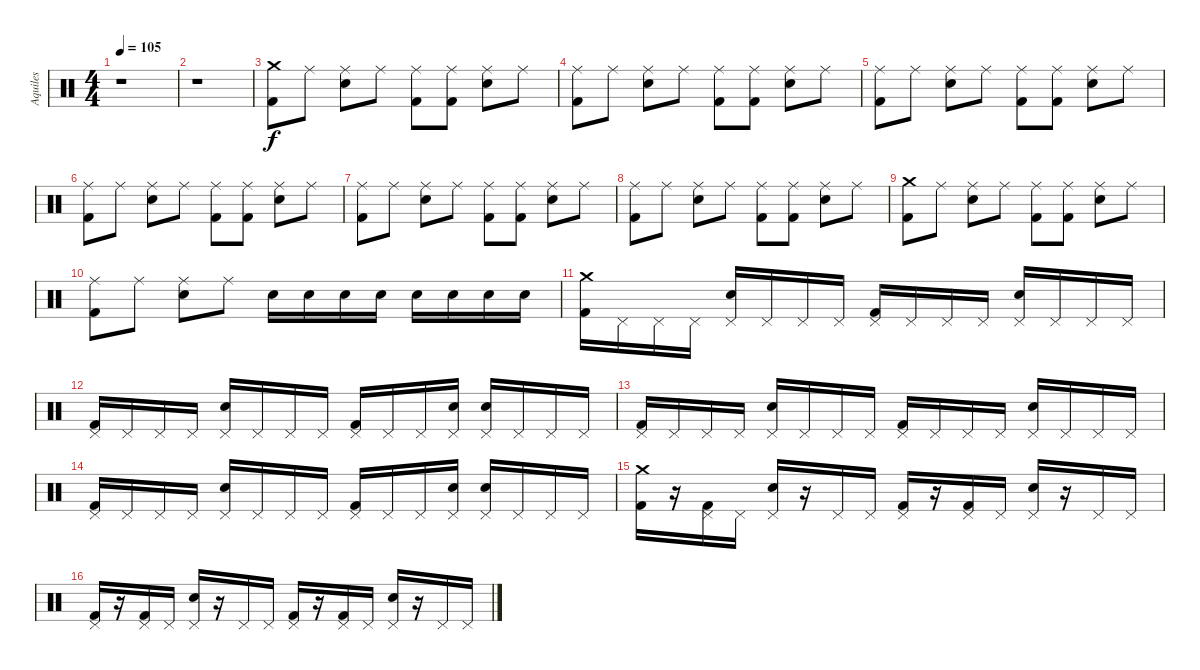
\track ("Aquiles" "Aquiles") {instrument percussion}
\staff {score}
\articulation defaults
\ts (4 4)
\tempo 105
\clef neutral
\ks c
r.1{dy f} |
r.1 |
("Kick (hit) 2" "Crash medium (hit)").8 "Ride (middle)".8 ("Ride (middle)" "Electric Snare (hit)").8 "Ride (middle)".8 ("Kick (hit) 2" "Ride (middle)").8 ("Kick (hit) 2" "Ride (middle)").8 ("Ride (middle)" "Electric Snare (hit)").8 "Ride (middle)".8 |
("Kick (hit) 2" "Ride (middle)").8 "Ride (middle)".8 ("Ride (middle)" "Electric Snare (hit)").8 "Ride (middle)".8 ("Kick (hit) 2" "Ride (middle)").8 ("Kick (hit) 2" "Ride (middle)").8 ("Ride (middle)" "Electric Snare (hit)").8 "Ride (middle)".8 |
("Kick (hit) 2" "Ride (middle)").8 "Ride (middle)".8 ("Ride (middle)" "Electric Snare (hit)").8 "Ride (middle)".8 ("Kick (hit) 2" "Ride (middle)").8 ("Kick (hit) 2" "Ride (middle)").8 ("Ride (middle)" "Electric Snare (hit)").8 "Ride (middle)".8 |
("Kick (hit) 2" "Ride (middle)").8 "Ride (middle)".8 ("Ride (middle)" "Electric Snare (hit)").8 "Ride (middle)".8 ("Kick (hit) 2" "Ride (middle)").8 ("Kick (hit) 2" "Ride (middle)").8 ("Ride (middle)" "Electric Snare (hit)").8 "Ride (middle)".8 |
("Kick (hit) 2" "Ride (middle)").8 "Ride (middle)".8 ("Ride (middle)" "Electric Snare (hit)").8 "Ride (middle)".8 ("Kick (hit) 2" "Ride (middle)").8 ("Kick (hit) 2" "Ride (middle)").8 ("Ride (middle)" "Electric Snare (hit)").8 "Ride (middle)".8 |
("Kick (hit) 2" "Ride (middle)").8 "Ride (middle)".8 ("Ride (middle)" "Electric Snare (hit)").8 "Ride (middle)".8 ("Kick (hit) 2" "Ride (middle)").8 ("Kick (hit) 2" "Ride (middle)").8 ("Ride (middle)" "Electric Snare (hit)").8 "Ride (middle)".8 |
("Kick (hit) 2" "Crash medium (hit)").8 "Ride (middle)".8 ("Ride (middle)" "Electric Snare (hit)").8 "Ride (middle)".8 ("Kick (hit) 2" "Ride (middle)").8 ("Kick (hit) 2" "Ride (middle)").8 ("Ride (middle)" "Electric Snare (hit)").8 "Ride (middle)".8 |
("Kick (hit) 2" "Ride (middle)").8 "Ride (middle)".8 ("Ride (middle)" "Electric Snare (hit)").8 "Ride (middle)".8 "Electric Snare (hit)".16 "Electric Snare (hit)".16 "Electric Snare (hit)".16 "Electric Snare (hit)".16 "Electric Snare (hit)".16 "Electric Snare (hit)".16 "Electric Snare (hit)".16 "Electric Snare (hit)".16 |
("Kick (hit) 2" "Crash medium (hit)").16 "Pedal Hi-Hat (hit)".16 "Pedal Hi-Hat (hit)".16 "Pedal Hi-Hat (hit)".16 ("Pedal Hi-Hat (hit)" "Electric Snare (hit)").16 "Pedal Hi-Hat (hit)".16 "Pedal Hi-Hat (hit)".16 "Pedal Hi-Hat (hit)".16 ("Kick (hit) 2" "Pedal Hi-Hat (hit)").16 "Pedal Hi-Hat (hit)".16 "Pedal Hi-Hat (hit)".16 "Pedal Hi-Hat (hit)".16 ("Pedal Hi-Hat (hit)" "Electric Snare (hit)").16 "Pedal Hi-Hat (hit)".16 "Pedal Hi-Hat (hit)".16 "Pedal Hi-Hat (hit)".16 |
("Kick (hit) 2" "Pedal Hi-Hat (hit)").16 "Pedal Hi-Hat (hit)".16 "Pedal Hi-Hat (hit)".16 "Pedal Hi-Hat (hit)".16 ("Pedal Hi-Hat (hit)" "Electric Snare (hit)").16 "Pedal Hi-Hat (hit)".16 "Pedal Hi-Hat (hit)".16 "Pedal Hi-Hat (hit)".16 ("Kick (hit) 2" "Pedal Hi-Hat (hit)").16 "Pedal Hi-Hat (hit)".16 "Pedal Hi-Hat (hit)".16 ("Pedal Hi-Hat (hit)" "Electric Snare (hit)").16 ("Pedal Hi-Hat (hit)" "Electric Snare (hit)").16 "Pedal Hi-Hat (hit)".16 "Pedal Hi-Hat (hit)".16 "Pedal Hi-Hat (hit)".16 |
("Kick (hit) 2" "Pedal Hi-Hat (hit)").16 "Pedal Hi-Hat (hit)".16 "Pedal Hi-Hat (hit)".16 "Pedal Hi-Hat (hit)".16 ("Pedal Hi-Hat (hit)" "Electric Snare (hit)").16 "Pedal Hi-Hat (hit)".16 "Pedal Hi-Hat (hit)".16 "Pedal Hi-Hat (hit)".16 ("Kick (hit) 2" "Pedal Hi-Hat (hit)").16 "Pedal Hi-Hat (hit)".16 "Pedal Hi-Hat (hit)".16 "Pedal Hi-Hat (hit)".16 ("Pedal Hi-Hat (hit)" "Electric Snare (hit)").16 "Pedal Hi-Hat (hit)".16 "Pedal Hi-Hat (hit)".16 "Pedal Hi-Hat (hit)".16 |
("Kick (hit) 2" "Pedal Hi-Hat (hit)").16 "Pedal Hi-Hat (hit)".16 "Pedal Hi-Hat (hit)".16 "Pedal Hi-Hat (hit)".16 ("Pedal Hi-Hat (hit)" "Electric Snare (hit)").16 "Pedal Hi-Hat (hit)".16 "Pedal Hi-Hat (hit)".16 "Pedal Hi-Hat (hit)".16 ("Kick (hit) 2" "Pedal Hi-Hat (hit)").16 "Pedal Hi-Hat (hit)".16 "Pedal Hi-Hat (hit)".16 ("Pedal Hi-Hat (hit)" "Electric Snare (hit)").16 ("Pedal Hi-Hat (hit)" "Electric Snare (hit)").16 "Pedal Hi-Hat (hit)".16 "Pedal Hi-Hat (hit)".16 "Pedal Hi-Hat (hit)".16 |
("Kick (hit) 2" "Crash medium (hit)").16 r.16 ("Kick (hit) 2" "Pedal Hi-Hat (hit)").16 "Pedal Hi-Hat (hit)".16 ("Pedal Hi-Hat (hit)" "Electric Snare (hit)").16 r.16 "Pedal Hi-Hat (hit)".16 "Pedal Hi-Hat (hit)".16 ("Kick (hit) 2" "Pedal Hi-Hat (hit)").16 r.16 ("Kick (hit) 2" "Pedal Hi-Hat (hit)").16 "Pedal Hi-Hat (hit)".16 ("Pedal Hi-Hat (hit)" "Electric Snare (hit)").16 r.16 "Pedal Hi-Hat (hit)".16 "Pedal Hi-Hat (hit)".16 |
("Kick (hit) 2" "Pedal Hi-Hat (hit)").16 r.16 ("Kick (hit) 2" "Pedal Hi-Hat (hit)").16 "Pedal Hi-Hat (hit)".16 ("Pedal Hi-Hat (hit)" "Electric Snare (hit)").16 r.16 "Pedal Hi-Hat (hit)".16 "Pedal Hi-Hat (hit)".16 ("Kick (hit) 2" "Pedal Hi-Hat (hit)").16 r.16 ("Kick (hit) 2" "Pedal Hi-Hat (hit)").16 "Pedal Hi-Hat (hit)".16 ("Pedal Hi-Hat (hit)" "Electric Snare (hit)").16 r.16 "Pedal Hi-Hat (hit)".16 "Pedal Hi-Hat (hit)".16
